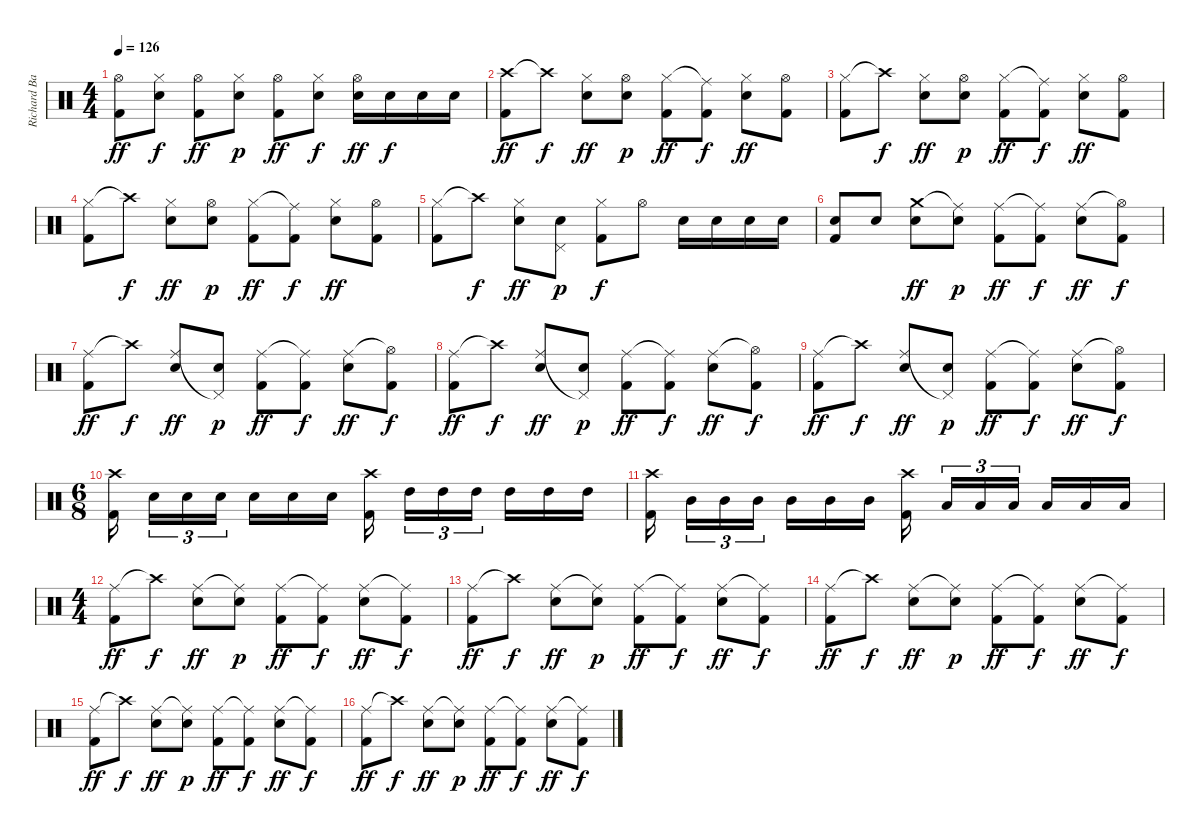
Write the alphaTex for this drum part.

\track ("Richard Bailey" "Richard Ba") {instrument percussion}
\staff {score}
\articulation defaults
\ts (4 4)
\tempo 126
\clef neutral
\ks c
("Hi-Hat (open)" "Kick (hit) 2").8{dy ff} ("Hi-Hat (closed)" "Snare (hit) 2").8{dy f} ("Hi-Hat (open)" "Kick (hit) 2").8{dy ff} ("Hi-Hat (closed)" "Snare (hit) 2").8{dy p} ("Hi-Hat (open)" "Kick (hit) 2").8{dy ff} ("Hi-Hat (closed)" "Snare (hit) 2").8{dy f} ("Hi-Hat (open)" "Snare (hit) 2").16{dy ff} "Snare (hit) 2".16{dy f} "Snare (hit) 2".16 "Snare (hit) 2".16 |
("Crash high (hit)" "Kick (hit) 2").8{dy ff} "Crash high (hit)"{t}.8{dy f} ("Hi-Hat (closed)" "Snare (hit) 2").8{dy ff} ("Hi-Hat (open)" "Snare (hit) 2").8{dy p} ("Hi-Hat (closed)" "Kick (hit) 2").8{dy ff} ("Ride (middle)"{t} "Kick (hit) 2").8{dy f} ("Hi-Hat (closed)" "Snare (hit) 2").8{dy ff} ("Hi-Hat (open)" "Kick (hit) 2").8 |
("Hi-Hat (closed)" "Kick (hit) 2").8 "Crash high (hit)"{t}.8{dy f} ("Hi-Hat (closed)" "Snare (hit) 2").8{dy ff} ("Hi-Hat (open)" "Snare (hit) 2").8{dy p} ("Hi-Hat (closed)" "Kick (hit) 2").8{dy ff} ("Ride (middle)"{t} "Kick (hit) 2").8{dy f} ("Hi-Hat (closed)" "Snare (hit) 2").8{dy ff} ("Hi-Hat (open)" "Kick (hit) 2").8 |
("Hi-Hat (closed)" "Kick (hit) 2").8 "Crash high (hit)"{t}.8{dy f} ("Hi-Hat (closed)" "Snare (hit) 2").8{dy ff} ("Hi-Hat (open)" "Snare (hit) 2").8{dy p} ("Hi-Hat (closed)" "Kick (hit) 2").8{dy ff} ("Ride (middle)"{t} "Kick (hit) 2").8{dy f} ("Hi-Hat (closed)" "Snare (hit) 2").8{dy ff} ("Hi-Hat (open)" "Kick (hit) 2").8 |
("Hi-Hat (closed)" "Kick (hit) 2").8 "Crash high (hit)"{t}.8{dy f} ("Hi-Hat (closed)" "Snare (hit) 2").8{dy ff} ("Pedal Hi-Hat (hit)" "Snare (hit) 2").8{dy p} ("Hi-Hat (closed)" "Kick (hit) 2").8{dy f} "Hi-Hat (open)".8 "Snare (hit) 2".16 "Snare (hit) 2".16 "Snare (hit) 2".16 "Snare (hit) 2".16 |
("Snare (hit) 2" "Kick (hit) 2").8 "Snare (hit) 2".8 ("Crash medium (hit)" "Snare (hit) 2").8{dy ff} ("Ride (middle)"{t} "Snare (hit) 2").8{dy p} ("Ride (middle)" "Kick (hit) 2").8{dy ff} ("Ride (middle)"{t} "Kick (hit) 2").8{dy f} ("Ride (middle)" "Snare (hit) 2").8{dy ff} ("Hi-Hat (open)"{t} "Kick (hit) 2").8{dy f} |
("Ride (middle)" "Kick (hit) 2").8{dy ff} "Crash high (hit)"{t}.8{dy f} ("Ride (middle)" "Snare (hit) 2").8{dy ff} ("Pedal Hi-Hat (hit)"{t} "Snare (hit) 2").8{dy p} ("Ride (middle)" "Kick (hit) 2").8{dy ff} ("Ride (middle)"{t} "Kick (hit) 2").8{dy f} ("Ride (middle)" "Snare (hit) 2").8{dy ff} ("Hi-Hat (open)"{t} "Kick (hit) 2").8{dy f} |
("Ride (middle)" "Kick (hit) 2").8{dy ff} "Crash high (hit)"{t}.8{dy f} ("Ride (middle)" "Snare (hit) 2").8{dy ff} ("Pedal Hi-Hat (hit)"{t} "Snare (hit) 2").8{dy p} ("Ride (middle)" "Kick (hit) 2").8{dy ff} ("Ride (middle)"{t} "Kick (hit) 2").8{dy f} ("Ride (middle)" "Snare (hit) 2").8{dy ff} ("Hi-Hat (open)"{t} "Kick (hit) 2").8{dy f} |
("Ride (middle)" "Kick (hit) 2").8{dy ff} "Crash high (hit)"{t}.8{dy f} ("Ride (middle)" "Snare (hit) 2").8{dy ff} ("Pedal Hi-Hat (hit)"{t} "Snare (hit) 2").8{dy p} ("Ride (middle)" "Kick (hit) 2").8{dy ff} ("Ride (middle)"{t} "Kick (hit) 2").8{dy f} ("Ride (middle)" "Snare (hit) 2").8{dy ff} ("Hi-Hat (open)"{t} "Kick (hit) 2").8{dy f} |
\ts (6 8)
("Crash high (hit)" "Kick (hit) 2").16 "Snare (hit) 2".16{tu (3 2)} "Snare (hit) 2".16{tu (3 2)} "Snare (hit) 2".16{tu (3 2)} "Snare (hit) 2".16 "Snare (hit) 2".16 "Snare (hit) 2".16 ("Crash high (hit)" "Kick (hit) 2").16 "High Tom (hit)".16{tu (3 2)} "High Tom (hit)".16{tu (3 2)} "High Tom (hit)".16{tu (3 2)} "High Tom (hit)".16 "High Tom (hit)".16 "High Tom (hit)".16 |
("Crash high (hit)" "Kick (hit) 2").16 "Mid Tom (hit)".16{tu (3 2)} "Mid Tom (hit)".16{tu (3 2)} "Mid Tom (hit)".16{tu (3 2)} "Mid Tom (hit)".16 "Mid Tom (hit)".16 "Mid Tom (hit)".16 ("Crash high (hit)" "Kick (hit) 2").16 "Low Tom (hit)".16{tu (3 2)} "Low Tom (hit)".16{tu (3 2)} "Low Tom (hit)".16{tu (3 2)} "Low Tom (hit)".16 "Low Tom (hit)".16 "Low Tom (hit)".16 |
\ts (4 4)
("Ride (middle)" "Kick (hit) 2").8{dy ff} "Crash high (hit)"{t}.8{dy f} ("Ride (middle)" "Snare (hit) 2").8{dy ff} ("Ride (middle)"{t} "Snare (hit) 2").8{dy p} ("Ride (middle)" "Kick (hit) 2").8{dy ff} ("Ride (middle)"{t} "Kick (hit) 2").8{dy f} ("Ride (middle)" "Snare (hit) 2").8{dy ff} ("Ride (middle)"{t} "Kick (hit) 2").8{dy f} |
("Ride (middle)" "Kick (hit) 2").8{dy ff} "Crash high (hit)"{t}.8{dy f} ("Ride (middle)" "Snare (hit) 2").8{dy ff} ("Ride (middle)"{t} "Snare (hit) 2").8{dy p} ("Ride (middle)" "Kick (hit) 2").8{dy ff} ("Ride (middle)"{t} "Kick (hit) 2").8{dy f} ("Ride (middle)" "Snare (hit) 2").8{dy ff} ("Ride (middle)"{t} "Kick (hit) 2").8{dy f} |
("Ride (middle)" "Kick (hit) 2").8{dy ff} "Crash high (hit)"{t}.8{dy f} ("Ride (middle)" "Snare (hit) 2").8{dy ff} ("Ride (middle)"{t} "Snare (hit) 2").8{dy p} ("Ride (middle)" "Kick (hit) 2").8{dy ff} ("Ride (middle)"{t} "Kick (hit) 2").8{dy f} ("Ride (middle)" "Snare (hit) 2").8{dy ff} ("Ride (middle)"{t} "Kick (hit) 2").8{dy f} |
("Ride (middle)" "Kick (hit) 2").8{dy ff} "Crash high (hit)"{t}.8{dy f} ("Ride (middle)" "Snare (hit) 2").8{dy ff} ("Ride (middle)"{t} "Snare (hit) 2").8{dy p} ("Ride (middle)" "Kick (hit) 2").8{dy ff} ("Ride (middle)"{t} "Kick (hit) 2").8{dy f} ("Ride (middle)" "Snare (hit) 2").8{dy ff} ("Ride (middle)"{t} "Kick (hit) 2").8{dy f} |
("Ride (middle)" "Kick (hit) 2").8{dy ff} "Crash high (hit)"{t}.8{dy f} ("Ride (middle)" "Snare (hit) 2").8{dy ff} ("Ride (middle)"{t} "Snare (hit) 2").8{dy p} ("Ride (middle)" "Kick (hit) 2").8{dy ff} ("Ride (middle)"{t} "Kick (hit) 2").8{dy f} ("Ride (middle)" "Snare (hit) 2").8{dy ff} ("Ride (middle)"{t} "Kick (hit) 2").8{dy f}
